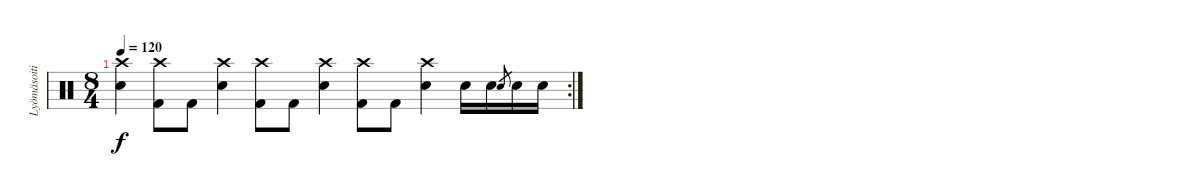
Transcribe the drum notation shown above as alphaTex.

\track ("Lyömäsoitin" "Lyömäsoiti") {instrument percussion}
\staff {score}
\articulation defaults
\rc 2
\ts (8 4)
\tempo 120
\clef neutral
\ks c
("Crash high (hit)" "Snare (hit) 2").4{dy f} ("Crash high (hit)" "Kick (hit) 2").8 "Kick (hit) 2".8 ("Crash high (hit)" "Snare (hit) 2").4 ("Crash high (hit)" "Kick (hit) 2").8 "Kick (hit) 2".8 ("Crash high (hit)" "Snare (hit) 2").4 ("Crash high (hit)" "Kick (hit) 2").8 "Kick (hit) 2".8 ("Crash high (hit)" "Snare (hit) 2").4 "Snare (hit) 2".16 "Snare (hit) 2".16 "Snare (hit) 2".8{gr} "Snare (hit) 2".16 "Snare (hit) 2".16
